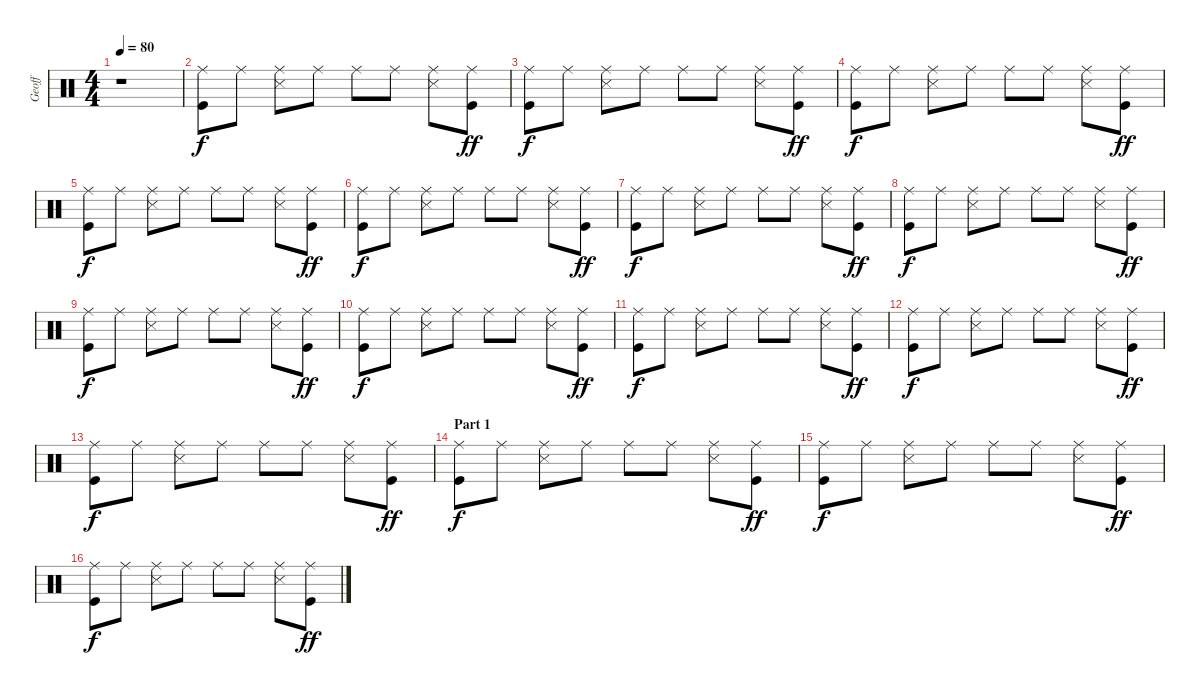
\track ("Geoff" "Geoff") {instrument percussion}
\staff {score}
\articulation defaults
\ts (4 4)
\tempo 80
\clef neutral
\ks c
r.1{dy f} |
("Ride (middle)" "Kick (hit)").8 "Ride (middle)".8 ("Ride (middle)" "Snare (side stick) 3").8 "Ride (middle)".8 "Ride (middle)".8 "Ride (middle)".8 ("Ride (middle)" "Snare (side stick) 3").8 ("Ride (middle)" "Kick (hit)").8{dy ff} |
("Ride (middle)" "Kick (hit)").8{dy f} "Ride (middle)".8 ("Ride (middle)" "Snare (side stick) 3").8 "Ride (middle)".8 "Ride (middle)".8 "Ride (middle)".8 ("Ride (middle)" "Snare (side stick) 3").8 ("Ride (middle)" "Kick (hit)").8{dy ff} |
("Ride (middle)" "Kick (hit)").8{dy f} "Ride (middle)".8 ("Ride (middle)" "Snare (side stick) 3").8 "Ride (middle)".8 "Ride (middle)".8 "Ride (middle)".8 ("Ride (middle)" "Snare (side stick) 3").8 ("Ride (middle)" "Kick (hit)").8{dy ff} |
("Ride (middle)" "Kick (hit)").8{dy f} "Ride (middle)".8 ("Ride (middle)" "Snare (side stick) 3").8 "Ride (middle)".8 "Ride (middle)".8 "Ride (middle)".8 ("Ride (middle)" "Snare (side stick) 3").8 ("Ride (middle)" "Kick (hit)").8{dy ff} |
("Ride (middle)" "Kick (hit)").8{dy f} "Ride (middle)".8 ("Ride (middle)" "Snare (side stick) 3").8 "Ride (middle)".8 "Ride (middle)".8 "Ride (middle)".8 ("Ride (middle)" "Snare (side stick) 3").8 ("Ride (middle)" "Kick (hit)").8{dy ff} |
("Ride (middle)" "Kick (hit)").8{dy f} "Ride (middle)".8 ("Ride (middle)" "Snare (side stick) 3").8 "Ride (middle)".8 "Ride (middle)".8 "Ride (middle)".8 ("Ride (middle)" "Snare (side stick) 3").8 ("Ride (middle)" "Kick (hit)").8{dy ff} |
("Ride (middle)" "Kick (hit)").8{dy f} "Ride (middle)".8 ("Ride (middle)" "Snare (side stick) 3").8 "Ride (middle)".8 "Ride (middle)".8 "Ride (middle)".8 ("Ride (middle)" "Snare (side stick) 3").8 ("Ride (middle)" "Kick (hit)").8{dy ff} |
("Ride (middle)" "Kick (hit)").8{dy f} "Ride (middle)".8 ("Ride (middle)" "Snare (side stick) 3").8 "Ride (middle)".8 "Ride (middle)".8 "Ride (middle)".8 ("Ride (middle)" "Snare (side stick) 3").8 ("Ride (middle)" "Kick (hit)").8{dy ff} |
("Ride (middle)" "Kick (hit)").8{dy f} "Ride (middle)".8 ("Ride (middle)" "Snare (side stick) 3").8 "Ride (middle)".8 "Ride (middle)".8 "Ride (middle)".8 ("Ride (middle)" "Snare (side stick) 3").8 ("Ride (middle)" "Kick (hit)").8{dy ff} |
("Ride (middle)" "Kick (hit)").8{dy f} "Ride (middle)".8 ("Ride (middle)" "Snare (side stick) 3").8 "Ride (middle)".8 "Ride (middle)".8 "Ride (middle)".8 ("Ride (middle)" "Snare (side stick) 3").8 ("Ride (middle)" "Kick (hit)").8{dy ff} |
("Ride (middle)" "Kick (hit)").8{dy f} "Ride (middle)".8 ("Ride (middle)" "Snare (side stick) 3").8 "Ride (middle)".8 "Ride (middle)".8 "Ride (middle)".8 ("Ride (middle)" "Snare (side stick) 3").8 ("Ride (middle)" "Kick (hit)").8{dy ff} |
("Ride (middle)" "Kick (hit)").8{dy f} "Ride (middle)".8 ("Ride (middle)" "Snare (side stick) 3").8 "Ride (middle)".8 "Ride (middle)".8 "Ride (middle)".8 ("Ride (middle)" "Snare (side stick) 3").8 ("Ride (middle)" "Kick (hit)").8{dy ff} |
\section ("" "Part 1")
("Ride (middle)" "Kick (hit)").8{dy f} "Ride (middle)".8 ("Ride (middle)" "Snare (side stick) 3").8 "Ride (middle)".8 "Ride (middle)".8 "Ride (middle)".8 ("Ride (middle)" "Snare (side stick) 3").8 ("Ride (middle)" "Kick (hit)").8{dy ff} |
("Ride (middle)" "Kick (hit)").8{dy f} "Ride (middle)".8 ("Ride (middle)" "Snare (side stick) 3").8 "Ride (middle)".8 "Ride (middle)".8 "Ride (middle)".8 ("Ride (middle)" "Snare (side stick) 3").8 ("Ride (middle)" "Kick (hit)").8{dy ff} |
("Ride (middle)" "Kick (hit)").8{dy f} "Ride (middle)".8 ("Ride (middle)" "Snare (side stick) 3").8 "Ride (middle)".8 "Ride (middle)".8 "Ride (middle)".8 ("Ride (middle)" "Snare (side stick) 3").8 ("Ride (middle)" "Kick (hit)").8{dy ff}
